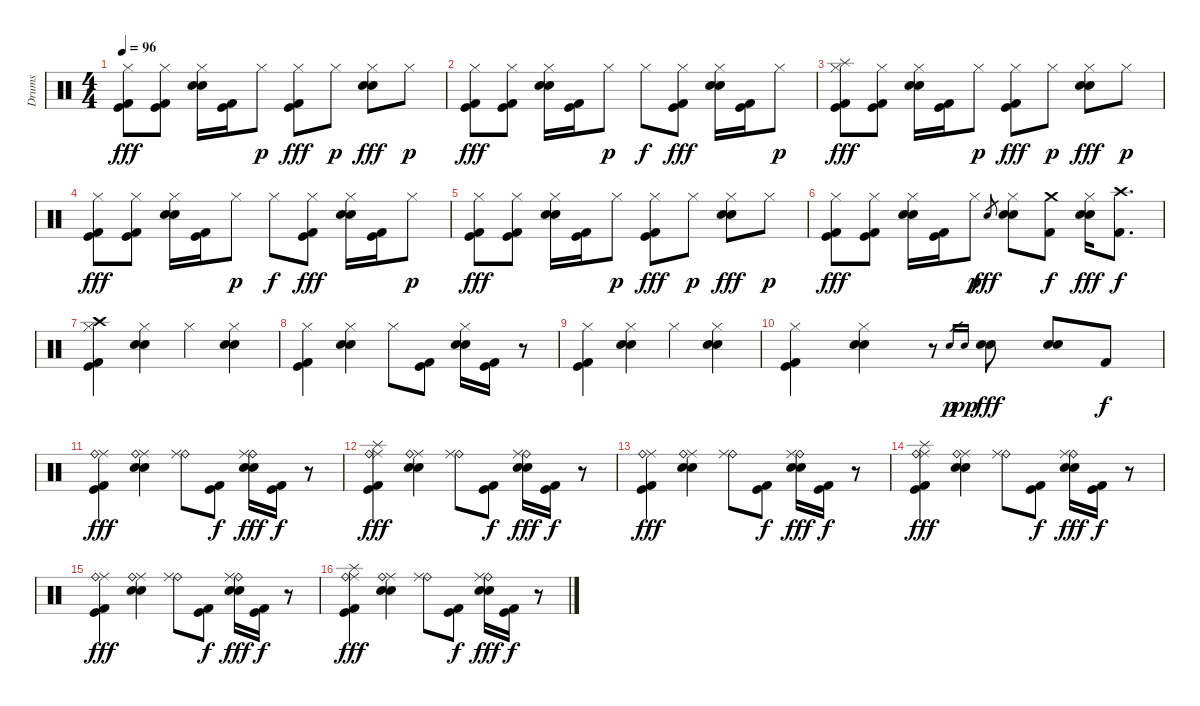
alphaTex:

\track ("Drums" "Drums") {instrument percussion}
\staff {score}
\articulation defaults
\ts (4 4)
\tempo 96
\clef neutral
\ks c
("Hi-Hat (closed)" "Kick (hit)" "Kick (hit) 2").8{dy fff} ("Hi-Hat (closed)" "Kick (hit)" "Kick (hit) 2").8 ("Hi-Hat (closed)" "Snare (hit) 2" "Electric Snare (hit)").16 ("Kick (hit)" "Kick (hit) 2").16 "Hi-Hat (closed)".8{dy p} ("Hi-Hat (closed)" "Kick (hit)" "Kick (hit) 2").8{dy fff} "Hi-Hat (closed)".8{dy p} ("Hi-Hat (closed)" "Snare (hit) 2" "Electric Snare (hit)").8{dy fff} "Hi-Hat (closed)".8{dy p} |
("Hi-Hat (closed)" "Kick (hit)" "Kick (hit) 2").8{dy fff} ("Hi-Hat (closed)" "Kick (hit)" "Kick (hit) 2").8 ("Hi-Hat (closed)" "Snare (hit) 2" "Electric Snare (hit)").16 ("Kick (hit)" "Kick (hit) 2").16 "Hi-Hat (closed)".8{dy p} "Hi-Hat (closed)".8{dy f} ("Hi-Hat (closed)" "Kick (hit)" "Kick (hit) 2").8{dy fff} ("Hi-Hat (closed)" "Snare (hit) 2" "Electric Snare (hit)").16 ("Kick (hit)" "Kick (hit) 2").16 "Hi-Hat (closed)".8{dy p} |
("Splash (hit)" "Hi-Hat (closed)" "Kick (hit)" "Kick (hit) 2").8{dy fff} ("Hi-Hat (closed)" "Kick (hit)" "Kick (hit) 2").8 ("Hi-Hat (closed)" "Snare (hit) 2" "Electric Snare (hit)").16 ("Kick (hit)" "Kick (hit) 2").16 "Hi-Hat (closed)".8{dy p} ("Hi-Hat (closed)" "Kick (hit)" "Kick (hit) 2").8{dy fff} "Hi-Hat (closed)".8{dy p} ("Hi-Hat (closed)" "Snare (hit) 2" "Electric Snare (hit)").8{dy fff} "Hi-Hat (closed)".8{dy p} |
("Hi-Hat (closed)" "Kick (hit)" "Kick (hit) 2").8{dy fff} ("Hi-Hat (closed)" "Kick (hit)" "Kick (hit) 2").8 ("Hi-Hat (closed)" "Snare (hit) 2" "Electric Snare (hit)").16 ("Kick (hit)" "Kick (hit) 2").16 "Hi-Hat (closed)".8{dy p} "Hi-Hat (closed)".8{dy f} ("Hi-Hat (closed)" "Kick (hit)" "Kick (hit) 2").8{dy fff} ("Hi-Hat (closed)" "Snare (hit) 2" "Electric Snare (hit)").16 ("Kick (hit)" "Kick (hit) 2").16 "Hi-Hat (closed)".8{dy p} |
("Hi-Hat (closed)" "Kick (hit)" "Kick (hit) 2").8{dy fff} ("Hi-Hat (closed)" "Kick (hit)" "Kick (hit) 2").8 ("Hi-Hat (closed)" "Snare (hit) 2" "Electric Snare (hit)").16 ("Kick (hit)" "Kick (hit) 2").16 "Hi-Hat (closed)".8{dy p} ("Hi-Hat (closed)" "Kick (hit)" "Kick (hit) 2").8{dy fff} "Hi-Hat (closed)".8{dy p} ("Hi-Hat (closed)" "Snare (hit) 2" "Electric Snare (hit)").8{dy fff} "Hi-Hat (closed)".8{dy p} |
("Hi-Hat (closed)" "Kick (hit)" "Kick (hit) 2").8{dy fff} ("Hi-Hat (closed)" "Kick (hit)" "Kick (hit) 2").8 ("Hi-Hat (closed)" "Snare (hit) 2" "Electric Snare (hit)").16 ("Kick (hit)" "Kick (hit) 2").16 "Hi-Hat (closed)".8{dy p} "Snare (hit) 2".8{gr dy fff} ("Hi-Hat (closed)" "Snare (hit) 2" "Electric Snare (hit)").8 ("Crash medium (hit)" "Kick (hit) 2").8{dy f} ("Hi-Hat (closed)" "Snare (hit) 2" "Electric Snare (hit)").16{dy fff} ("Crash high (hit)" "Kick (hit) 2").8{d dy f} |
("Hi-Hat (closed)" "Crash high (hit)" "Kick (hit)" "Kick (hit) 2").4 ("Hi-Hat (closed)" "Snare (hit) 2" "Electric Snare (hit)").4 "Hi-Hat (closed)".4 ("Hi-Hat (closed)" "Snare (hit) 2" "Electric Snare (hit)").4 |
("Hi-Hat (closed)" "Kick (hit)" "Kick (hit) 2").4 ("Hi-Hat (closed)" "Snare (hit) 2" "Electric Snare (hit)").4 "Hi-Hat (closed)".8 ("Kick (hit)" "Kick (hit) 2").8 ("Hi-Hat (closed)" "Snare (hit) 2" "Electric Snare (hit)").16 ("Kick (hit)" "Kick (hit) 2").16 r.8 |
("Hi-Hat (closed)" "Kick (hit)" "Kick (hit) 2").4 ("Hi-Hat (closed)" "Snare (hit) 2" "Electric Snare (hit)").4 "Hi-Hat (closed)".4 ("Hi-Hat (closed)" "Snare (hit) 2" "Electric Snare (hit)").4 |
("Hi-Hat (closed)" "Kick (hit)" "Kick (hit) 2").4 ("Hi-Hat (closed)" "Snare (hit) 2" "Electric Snare (hit)").4 r.8 "Snare (hit) 2".16{gr dy p} "Electric Snare (hit)".16{gr dy pp} ("Snare (hit) 2" "Electric Snare (hit)").8{dy fff} ("Snare (hit) 2" "Electric Snare (hit)").8 "Kick (hit) 2".8{dy f} |
("Ride (middle)" "Ride (bell)" "Kick (hit)" "Kick (hit) 2").4{dy fff} ("Ride (middle)" "Ride (bell)" "Snare (hit) 2" "Electric Snare (hit)").4 ("Ride (bell)" "Ride (middle)").8 ("Kick (hit)" "Kick (hit) 2").8{dy f} ("Ride (bell)" "Ride (middle)" "Snare (hit) 2" "Electric Snare (hit)").16{dy fff} ("Kick (hit)" "Kick (hit) 2").16{dy f} r.8 |
("Ride (middle)" "Ride (bell)" "Splash (hit)" "Kick (hit)" "Kick (hit) 2").4{dy fff} ("Ride (middle)" "Ride (bell)" "Snare (hit) 2" "Electric Snare (hit)").4 ("Ride (bell)" "Ride (middle)").8 ("Kick (hit)" "Kick (hit) 2").8{dy f} ("Ride (bell)" "Ride (middle)" "Snare (hit) 2" "Electric Snare (hit)").16{dy fff} ("Kick (hit)" "Kick (hit) 2").16{dy f} r.8 |
("Ride (middle)" "Ride (bell)" "Kick (hit)" "Kick (hit) 2").4{dy fff} ("Ride (middle)" "Ride (bell)" "Snare (hit) 2" "Electric Snare (hit)").4 ("Ride (bell)" "Ride (middle)").8 ("Kick (hit)" "Kick (hit) 2").8{dy f} ("Ride (bell)" "Ride (middle)" "Snare (hit) 2" "Electric Snare (hit)").16{dy fff} ("Kick (hit)" "Kick (hit) 2").16{dy f} r.8 |
("Ride (middle)" "Ride (bell)" "Splash (hit)" "Kick (hit)" "Kick (hit) 2").4{dy fff} ("Ride (middle)" "Ride (bell)" "Snare (hit) 2" "Electric Snare (hit)").4 ("Ride (bell)" "Ride (middle)").8 ("Kick (hit)" "Kick (hit) 2").8{dy f} ("Ride (bell)" "Ride (middle)" "Snare (hit) 2" "Electric Snare (hit)").16{dy fff} ("Kick (hit)" "Kick (hit) 2").16{dy f} r.8 |
("Ride (middle)" "Ride (bell)" "Kick (hit)" "Kick (hit) 2").4{dy fff} ("Ride (middle)" "Ride (bell)" "Snare (hit) 2" "Electric Snare (hit)").4 ("Ride (bell)" "Ride (middle)").8 ("Kick (hit)" "Kick (hit) 2").8{dy f} ("Ride (bell)" "Ride (middle)" "Snare (hit) 2" "Electric Snare (hit)").16{dy fff} ("Kick (hit)" "Kick (hit) 2").16{dy f} r.8 |
("Ride (middle)" "Ride (bell)" "Splash (hit)" "Kick (hit)" "Kick (hit) 2").4{dy fff} ("Ride (middle)" "Ride (bell)" "Snare (hit) 2" "Electric Snare (hit)").4 ("Ride (bell)" "Ride (middle)").8 ("Kick (hit)" "Kick (hit) 2").8{dy f} ("Ride (bell)" "Ride (middle)" "Snare (hit) 2" "Electric Snare (hit)").16{dy fff} ("Kick (hit)" "Kick (hit) 2").16{dy f} r.8
